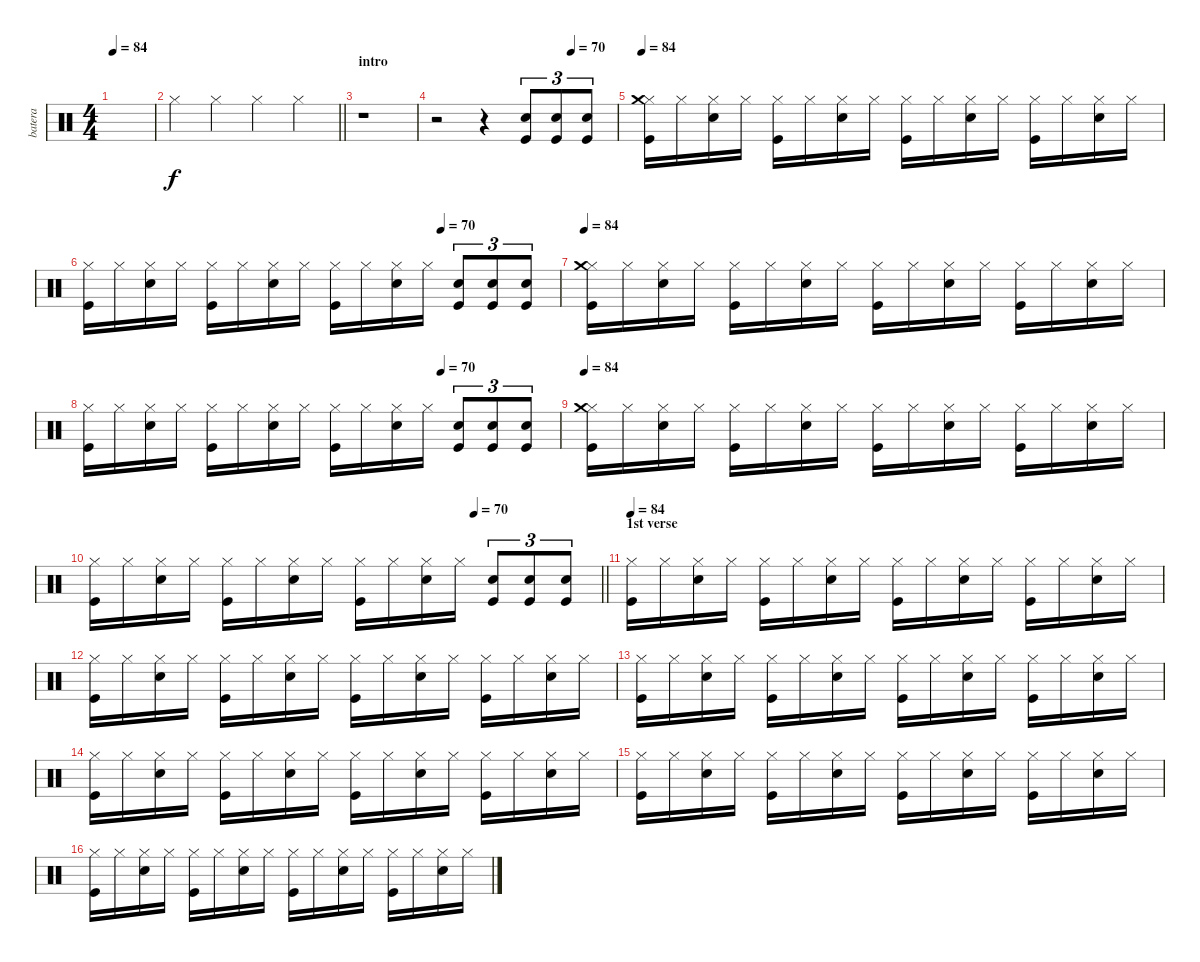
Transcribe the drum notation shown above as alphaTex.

\track ("batera" "batera") {solo instrument percussion}
\staff {score}
\articulation defaults
\ts (4 4)
\tempo 84
\clef neutral
\ks c
|
\barLineRight lightlight "Hi-Hat (closed)".4 "Hi-Hat (closed)".4 "Hi-Hat (closed)".4 "Hi-Hat (closed)".4
|
\section ("" "intro")
r.1 |
\tempo (70 0.75)
r.2 r.4 ("Snare (hit) 2" "Kick (hit)").8{tu (3 2)} ("Snare (hit) 2" "Kick (hit)").8{tu (3 2)} ("Snare (hit) 2" "Kick (hit)").8{tu (3 2)} |
\tempo 84
("Hi-Hat (closed)" "Crash medium (hit)" "Kick (hit)").16 "Hi-Hat (closed)".16 ("Hi-Hat (closed)" "Snare (hit) 2").16 "Hi-Hat (closed)".16 ("Hi-Hat (closed)" "Kick (hit)").16 "Hi-Hat (closed)".16 ("Hi-Hat (closed)" "Snare (hit) 2").16 "Hi-Hat (closed)".16 ("Hi-Hat (closed)" "Kick (hit)").16 "Hi-Hat (closed)".16 ("Hi-Hat (closed)" "Snare (hit) 2").16 "Hi-Hat (closed)".16 ("Hi-Hat (closed)" "Kick (hit)").16 "Hi-Hat (closed)".16 ("Hi-Hat (closed)" "Snare (hit) 2").16 "Hi-Hat (closed)".16 |
\tempo (70 0.75)
("Hi-Hat (closed)" "Kick (hit)").16 "Hi-Hat (closed)".16 ("Hi-Hat (closed)" "Snare (hit) 2").16 "Hi-Hat (closed)".16 ("Hi-Hat (closed)" "Kick (hit)").16 "Hi-Hat (closed)".16 ("Hi-Hat (closed)" "Snare (hit) 2").16 "Hi-Hat (closed)".16 ("Hi-Hat (closed)" "Kick (hit)").16 "Hi-Hat (closed)".16 ("Hi-Hat (closed)" "Snare (hit) 2").16 "Hi-Hat (closed)".16 ("Snare (hit) 2" "Kick (hit)").8{tu (3 2)} ("Snare (hit) 2" "Kick (hit)").8{tu (3 2)} ("Snare (hit) 2" "Kick (hit)").8{tu (3 2)} |
\tempo 84
("Hi-Hat (closed)" "Crash medium (hit)" "Kick (hit)").16 "Hi-Hat (closed)".16 ("Hi-Hat (closed)" "Snare (hit) 2").16 "Hi-Hat (closed)".16 ("Hi-Hat (closed)" "Kick (hit)").16 "Hi-Hat (closed)".16 ("Hi-Hat (closed)" "Snare (hit) 2").16 "Hi-Hat (closed)".16 ("Hi-Hat (closed)" "Kick (hit)").16 "Hi-Hat (closed)".16 ("Hi-Hat (closed)" "Snare (hit) 2").16 "Hi-Hat (closed)".16 ("Hi-Hat (closed)" "Kick (hit)").16 "Hi-Hat (closed)".16 ("Hi-Hat (closed)" "Snare (hit) 2").16 "Hi-Hat (closed)".16 |
\tempo (70 0.75)
("Hi-Hat (closed)" "Kick (hit)").16 "Hi-Hat (closed)".16 ("Hi-Hat (closed)" "Snare (hit) 2").16 "Hi-Hat (closed)".16 ("Hi-Hat (closed)" "Kick (hit)").16 "Hi-Hat (closed)".16 ("Hi-Hat (closed)" "Snare (hit) 2").16 "Hi-Hat (closed)".16 ("Hi-Hat (closed)" "Kick (hit)").16 "Hi-Hat (closed)".16 ("Hi-Hat (closed)" "Snare (hit) 2").16 "Hi-Hat (closed)".16 ("Snare (hit) 2" "Kick (hit)").8{tu (3 2)} ("Snare (hit) 2" "Kick (hit)").8{tu (3 2)} ("Snare (hit) 2" "Kick (hit)").8{tu (3 2)} |
\tempo 84
("Hi-Hat (closed)" "Crash medium (hit)" "Kick (hit)").16 "Hi-Hat (closed)".16 ("Hi-Hat (closed)" "Snare (hit) 2").16 "Hi-Hat (closed)".16 ("Hi-Hat (closed)" "Kick (hit)").16 "Hi-Hat (closed)".16 ("Hi-Hat (closed)" "Snare (hit) 2").16 "Hi-Hat (closed)".16 ("Hi-Hat (closed)" "Kick (hit)").16 "Hi-Hat (closed)".16 ("Hi-Hat (closed)" "Snare (hit) 2").16 "Hi-Hat (closed)".16 ("Hi-Hat (closed)" "Kick (hit)").16 "Hi-Hat (closed)".16 ("Hi-Hat (closed)" "Snare (hit) 2").16 "Hi-Hat (closed)".16 |
\tempo (70 0.75)
\barLineRight lightlight
("Hi-Hat (closed)" "Kick (hit)").16 "Hi-Hat (closed)".16 ("Hi-Hat (closed)" "Snare (hit) 2").16 "Hi-Hat (closed)".16 ("Hi-Hat (closed)" "Kick (hit)").16 "Hi-Hat (closed)".16 ("Hi-Hat (closed)" "Snare (hit) 2").16 "Hi-Hat (closed)".16 ("Hi-Hat (closed)" "Kick (hit)").16 "Hi-Hat (closed)".16 ("Hi-Hat (closed)" "Snare (hit) 2").16 "Hi-Hat (closed)".16 ("Snare (hit) 2" "Kick (hit)").8{tu (3 2)} ("Snare (hit) 2" "Kick (hit)").8{tu (3 2)} ("Snare (hit) 2" "Kick (hit)").8{tu (3 2)} |
\section ("" "1st verse")
\tempo 84
("Hi-Hat (closed)" "Kick (hit)").16 "Hi-Hat (closed)".16 ("Hi-Hat (closed)" "Snare (hit) 2").16 "Hi-Hat (closed)".16 ("Hi-Hat (closed)" "Kick (hit)").16 "Hi-Hat (closed)".16 ("Hi-Hat (closed)" "Snare (hit) 2").16 "Hi-Hat (closed)".16 ("Hi-Hat (closed)" "Kick (hit)").16 "Hi-Hat (closed)".16 ("Hi-Hat (closed)" "Snare (hit) 2").16 "Hi-Hat (closed)".16 ("Hi-Hat (closed)" "Kick (hit)").16 "Hi-Hat (closed)".16 ("Hi-Hat (closed)" "Snare (hit) 2").16 "Hi-Hat (closed)".16 |
("Hi-Hat (closed)" "Kick (hit)").16 "Hi-Hat (closed)".16 ("Hi-Hat (closed)" "Snare (hit) 2").16 "Hi-Hat (closed)".16 ("Hi-Hat (closed)" "Kick (hit)").16 "Hi-Hat (closed)".16 ("Hi-Hat (closed)" "Snare (hit) 2").16 "Hi-Hat (closed)".16 ("Hi-Hat (closed)" "Kick (hit)").16 "Hi-Hat (closed)".16 ("Hi-Hat (closed)" "Snare (hit) 2").16 "Hi-Hat (closed)".16 ("Hi-Hat (closed)" "Kick (hit)").16 "Hi-Hat (closed)".16 ("Hi-Hat (closed)" "Snare (hit) 2").16 "Hi-Hat (closed)".16 |
("Hi-Hat (closed)" "Kick (hit)").16 "Hi-Hat (closed)".16 ("Hi-Hat (closed)" "Snare (hit) 2").16 "Hi-Hat (closed)".16 ("Hi-Hat (closed)" "Kick (hit)").16 "Hi-Hat (closed)".16 ("Hi-Hat (closed)" "Snare (hit) 2").16 "Hi-Hat (closed)".16 ("Hi-Hat (closed)" "Kick (hit)").16 "Hi-Hat (closed)".16 ("Hi-Hat (closed)" "Snare (hit) 2").16 "Hi-Hat (closed)".16 ("Hi-Hat (closed)" "Kick (hit)").16 "Hi-Hat (closed)".16 ("Hi-Hat (closed)" "Snare (hit) 2").16 "Hi-Hat (closed)".16 |
("Hi-Hat (closed)" "Kick (hit)").16 "Hi-Hat (closed)".16 ("Hi-Hat (closed)" "Snare (hit) 2").16 "Hi-Hat (closed)".16 ("Hi-Hat (closed)" "Kick (hit)").16 "Hi-Hat (closed)".16 ("Hi-Hat (closed)" "Snare (hit) 2").16 "Hi-Hat (closed)".16 ("Hi-Hat (closed)" "Kick (hit)").16 "Hi-Hat (closed)".16 ("Hi-Hat (closed)" "Snare (hit) 2").16 "Hi-Hat (closed)".16 ("Hi-Hat (closed)" "Kick (hit)").16 "Hi-Hat (closed)".16 ("Hi-Hat (closed)" "Snare (hit) 2").16 "Hi-Hat (closed)".16 |
("Hi-Hat (closed)" "Kick (hit)").16 "Hi-Hat (closed)".16 ("Hi-Hat (closed)" "Snare (hit) 2").16 "Hi-Hat (closed)".16 ("Hi-Hat (closed)" "Kick (hit)").16 "Hi-Hat (closed)".16 ("Hi-Hat (closed)" "Snare (hit) 2").16 "Hi-Hat (closed)".16 ("Hi-Hat (closed)" "Kick (hit)").16 "Hi-Hat (closed)".16 ("Hi-Hat (closed)" "Snare (hit) 2").16 "Hi-Hat (closed)".16 ("Hi-Hat (closed)" "Kick (hit)").16 "Hi-Hat (closed)".16 ("Hi-Hat (closed)" "Snare (hit) 2").16 "Hi-Hat (closed)".16 |
("Hi-Hat (closed)" "Kick (hit)").16 "Hi-Hat (closed)".16 ("Hi-Hat (closed)" "Snare (hit) 2").16 "Hi-Hat (closed)".16 ("Hi-Hat (closed)" "Kick (hit)").16 "Hi-Hat (closed)".16 ("Hi-Hat (closed)" "Snare (hit) 2").16 "Hi-Hat (closed)".16 ("Hi-Hat (closed)" "Kick (hit)").16 "Hi-Hat (closed)".16 ("Hi-Hat (closed)" "Snare (hit) 2").16 "Hi-Hat (closed)".16 ("Hi-Hat (closed)" "Kick (hit)").16 "Hi-Hat (closed)".16 ("Hi-Hat (closed)" "Snare (hit) 2").16 "Hi-Hat (closed)".16
